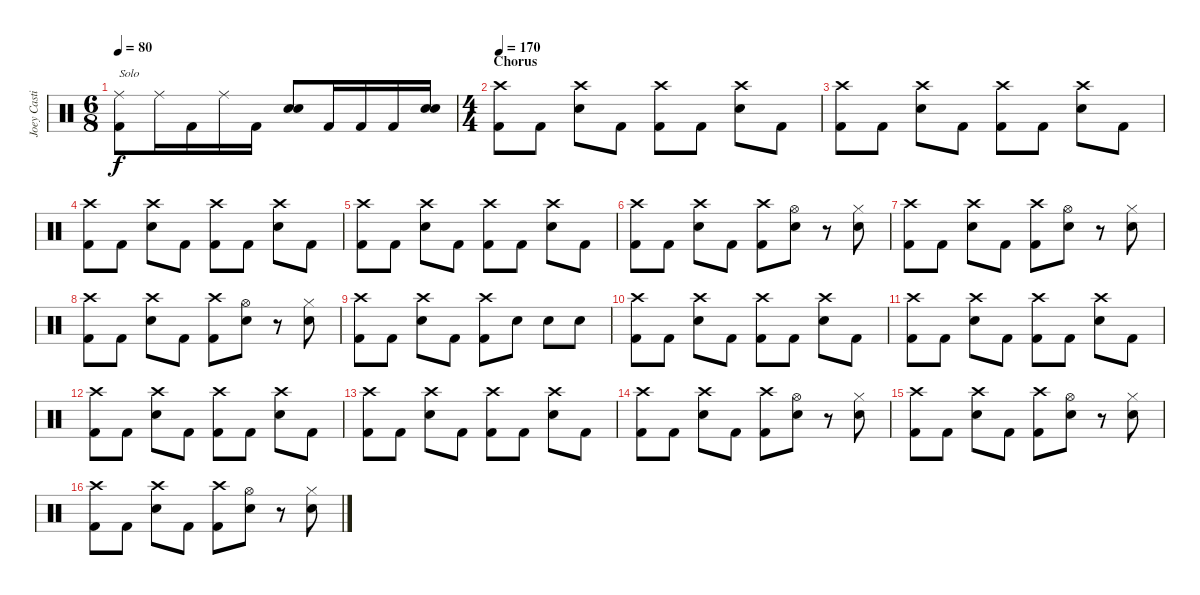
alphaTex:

\track ("Joey Castillo - drums" "Joey Casti") {instrument percussion}
\staff {score}
\articulation defaults
\ts (6 8)
\tempo 80
\clef neutral
\ks c
("Ride (middle)" "Kick (hit) 2").8{txt "Solo" dy f} "Ride (middle)".16 "Kick (hit) 2".16 "Ride (middle)".16 "Kick (hit) 2".16 ("Electric Snare (hit)" "Snare (hit) 2").8 "Kick (hit) 2".16 "Kick (hit) 2".16 "Kick (hit) 2".16 ("Electric Snare (hit)" "Snare (hit) 2").16 |
\ts (4 4)
\section ("" "Chorus")
\tempo 170
("Kick (hit) 2" "Crash high (hit)").8 "Kick (hit) 2".8 ("Electric Snare (hit)" "Crash high (hit)").8 "Kick (hit) 2".8 ("Kick (hit) 2" "Crash high (hit)").8 "Kick (hit) 2".8 ("Electric Snare (hit)" "Crash high (hit)").8 "Kick (hit) 2".8 |
("Kick (hit) 2" "Crash high (hit)").8 "Kick (hit) 2".8 ("Electric Snare (hit)" "Crash high (hit)").8 "Kick (hit) 2".8 ("Kick (hit) 2" "Crash high (hit)").8 "Kick (hit) 2".8 ("Electric Snare (hit)" "Crash high (hit)").8 "Kick (hit) 2".8 |
("Kick (hit) 2" "Crash high (hit)").8 "Kick (hit) 2".8 ("Electric Snare (hit)" "Crash high (hit)").8 "Kick (hit) 2".8 ("Kick (hit) 2" "Crash high (hit)").8 "Kick (hit) 2".8 ("Electric Snare (hit)" "Crash high (hit)").8 "Kick (hit) 2".8 |
("Kick (hit) 2" "Crash high (hit)").8 "Kick (hit) 2".8 ("Electric Snare (hit)" "Crash high (hit)").8 "Kick (hit) 2".8 ("Kick (hit) 2" "Crash high (hit)").8 "Kick (hit) 2".8 ("Electric Snare (hit)" "Crash high (hit)").8 "Kick (hit) 2".8 |
("Kick (hit) 2" "Crash high (hit)").8 "Kick (hit) 2".8 ("Electric Snare (hit)" "Crash high (hit)").8 "Kick (hit) 2".8 ("Kick (hit) 2" "Crash high (hit)").8 ("Electric Snare (hit)" "Hi-Hat (open)").8 r.8 ("Electric Snare (hit)" "Hi-Hat (closed)").8 |
("Kick (hit) 2" "Crash high (hit)").8 "Kick (hit) 2".8 ("Electric Snare (hit)" "Crash high (hit)").8 "Kick (hit) 2".8 ("Kick (hit) 2" "Crash high (hit)").8 ("Electric Snare (hit)" "Hi-Hat (open)").8 r.8 ("Electric Snare (hit)" "Hi-Hat (closed)").8 |
("Kick (hit) 2" "Crash high (hit)").8 "Kick (hit) 2".8 ("Electric Snare (hit)" "Crash high (hit)").8 "Kick (hit) 2".8 ("Kick (hit) 2" "Crash high (hit)").8 ("Electric Snare (hit)" "Hi-Hat (open)").8 r.8 ("Electric Snare (hit)" "Hi-Hat (closed)").8 |
("Kick (hit) 2" "Crash high (hit)").8 "Kick (hit) 2".8 ("Electric Snare (hit)" "Crash high (hit)").8 "Kick (hit) 2".8 ("Kick (hit) 2" "Crash high (hit)").8 "Electric Snare (hit)".8 "Electric Snare (hit)".8 "Electric Snare (hit)".8 |
("Kick (hit) 2" "Crash high (hit)").8 "Kick (hit) 2".8 ("Electric Snare (hit)" "Crash high (hit)").8 "Kick (hit) 2".8 ("Kick (hit) 2" "Crash high (hit)").8 "Kick (hit) 2".8 ("Electric Snare (hit)" "Crash high (hit)").8 "Kick (hit) 2".8 |
("Kick (hit) 2" "Crash high (hit)").8 "Kick (hit) 2".8 ("Electric Snare (hit)" "Crash high (hit)").8 "Kick (hit) 2".8 ("Kick (hit) 2" "Crash high (hit)").8 "Kick (hit) 2".8 ("Electric Snare (hit)" "Crash high (hit)").8 "Kick (hit) 2".8 |
("Kick (hit) 2" "Crash high (hit)").8 "Kick (hit) 2".8 ("Electric Snare (hit)" "Crash high (hit)").8 "Kick (hit) 2".8 ("Kick (hit) 2" "Crash high (hit)").8 "Kick (hit) 2".8 ("Electric Snare (hit)" "Crash high (hit)").8 "Kick (hit) 2".8 |
("Kick (hit) 2" "Crash high (hit)").8 "Kick (hit) 2".8 ("Electric Snare (hit)" "Crash high (hit)").8 "Kick (hit) 2".8 ("Kick (hit) 2" "Crash high (hit)").8 "Kick (hit) 2".8 ("Electric Snare (hit)" "Crash high (hit)").8 "Kick (hit) 2".8 |
("Kick (hit) 2" "Crash high (hit)").8 "Kick (hit) 2".8 ("Electric Snare (hit)" "Crash high (hit)").8 "Kick (hit) 2".8 ("Kick (hit) 2" "Crash high (hit)").8 ("Electric Snare (hit)" "Hi-Hat (open)").8 r.8 ("Electric Snare (hit)" "Hi-Hat (closed)").8 |
("Kick (hit) 2" "Crash high (hit)").8 "Kick (hit) 2".8 ("Electric Snare (hit)" "Crash high (hit)").8 "Kick (hit) 2".8 ("Kick (hit) 2" "Crash high (hit)").8 ("Electric Snare (hit)" "Hi-Hat (open)").8 r.8 ("Electric Snare (hit)" "Hi-Hat (closed)").8 |
("Kick (hit) 2" "Crash high (hit)").8 "Kick (hit) 2".8 ("Electric Snare (hit)" "Crash high (hit)").8 "Kick (hit) 2".8 ("Kick (hit) 2" "Crash high (hit)").8 ("Electric Snare (hit)" "Hi-Hat (open)").8 r.8 ("Electric Snare (hit)" "Hi-Hat (closed)").8
